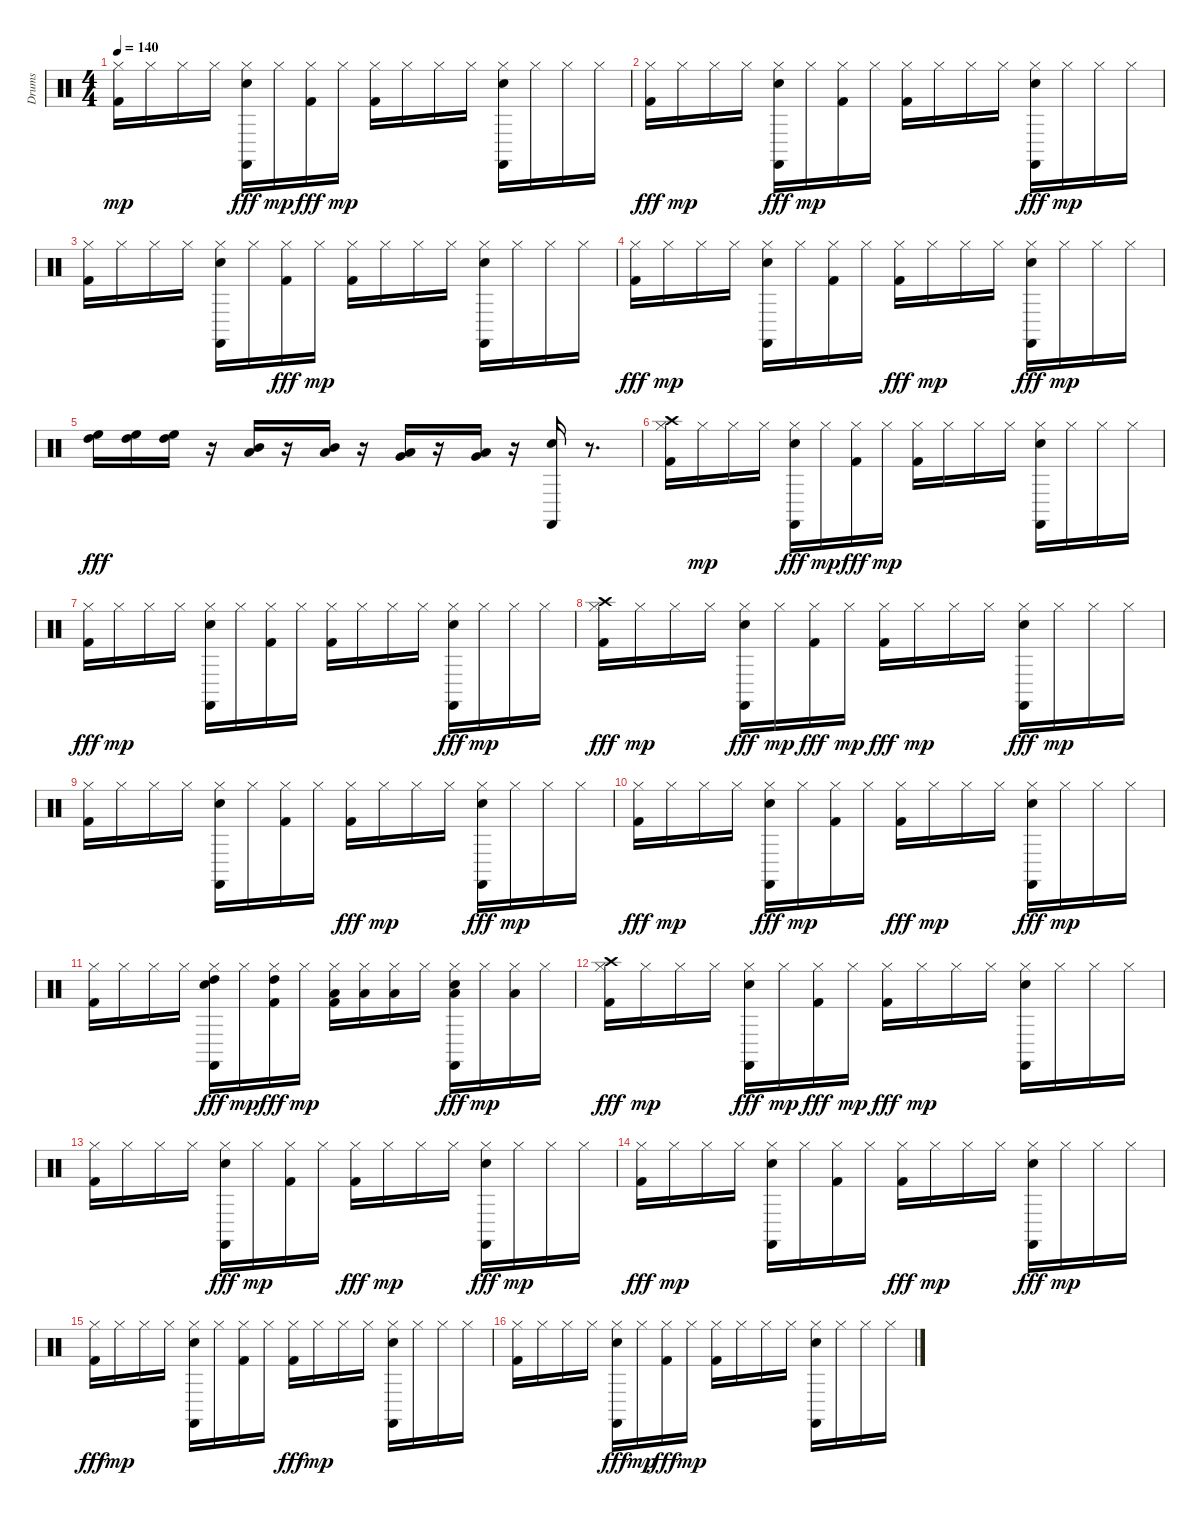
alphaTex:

\track ("Drums" "Drums") {instrument percussion}
\staff {score}
\articulation defaults
\ts (4 4)
\tempo 140
\clef neutral
\ks c
("Kick (hit) 2" "Hi-Hat (closed)").16{dy mp} "Hi-Hat (closed)".16 "Hi-Hat (closed)".16 "Hi-Hat (closed)".16 ("Hi-Hat (closed)" "Castanets (hit)" "Snare (hit) 2").16{dy fff} "Hi-Hat (closed)".16{dy mp} ("Hi-Hat (closed)" "Kick (hit) 2").16{dy fff} "Hi-Hat (closed)".16{dy mp} ("Kick (hit) 2" "Hi-Hat (closed)").16 "Hi-Hat (closed)".16 "Hi-Hat (closed)".16 "Hi-Hat (closed)".16 ("Snare (hit) 2" "Castanets (hit)" "Hi-Hat (closed)").16 "Hi-Hat (closed)".16 "Hi-Hat (closed)".16 "Hi-Hat (closed)".16 |
("Hi-Hat (closed)" "Kick (hit) 2").16{dy fff} "Hi-Hat (closed)".16{dy mp} "Hi-Hat (closed)".16 "Hi-Hat (closed)".16 ("Snare (hit) 2" "Hi-Hat (closed)" "Castanets (hit)").16{dy fff} "Hi-Hat (closed)".16{dy mp} ("Kick (hit) 2" "Hi-Hat (closed)").16 "Hi-Hat (closed)".16 ("Kick (hit) 2" "Hi-Hat (closed)").16 "Hi-Hat (closed)".16 "Hi-Hat (closed)".16 "Hi-Hat (closed)".16 ("Castanets (hit)" "Hi-Hat (closed)" "Snare (hit) 2").16{dy fff} "Hi-Hat (closed)".16{dy mp} "Hi-Hat (closed)".16 "Hi-Hat (closed)".16 |
("Kick (hit) 2" "Hi-Hat (closed)").16 "Hi-Hat (closed)".16 "Hi-Hat (closed)".16 "Hi-Hat (closed)".16 ("Snare (hit) 2" "Castanets (hit)" "Hi-Hat (closed)").16 "Hi-Hat (closed)".16 ("Hi-Hat (closed)" "Kick (hit) 2").16{dy fff} "Hi-Hat (closed)".16{dy mp} ("Kick (hit) 2" "Hi-Hat (closed)").16 "Hi-Hat (closed)".16 "Hi-Hat (closed)".16 "Hi-Hat (closed)".16 ("Castanets (hit)" "Snare (hit) 2" "Hi-Hat (closed)").16 "Hi-Hat (closed)".16 "Hi-Hat (closed)".16 "Hi-Hat (closed)".16 |
("Hi-Hat (closed)" "Kick (hit) 2").16{dy fff} "Hi-Hat (closed)".16{dy mp} "Hi-Hat (closed)".16 "Hi-Hat (closed)".16 ("Castanets (hit)" "Snare (hit) 2" "Hi-Hat (closed)").16 "Hi-Hat (closed)".16 ("Kick (hit) 2" "Hi-Hat (closed)").16 "Hi-Hat (closed)".16 ("Hi-Hat (closed)" "Kick (hit) 2").16{dy fff} "Hi-Hat (closed)".16{dy mp} "Hi-Hat (closed)".16 "Hi-Hat (closed)".16 ("Hi-Hat (closed)" "Castanets (hit)" "Snare (hit) 2").16{dy fff} "Hi-Hat (closed)".16{dy mp} "Hi-Hat (closed)".16 "Hi-Hat (closed)".16 |
("High Tom (hit)" "High Floor Tom (hit)").16{dy fff} ("High Floor Tom (hit)" "High Tom (hit)").16 ("High Floor Tom (hit)" "High Tom (hit)").16 r.16 ("Low Tom (hit)" "Mid Tom (hit)").16 r.16 ("Mid Tom (hit)" "Low Tom (hit)").16 r.16 ("Very Low Tom (hit)" "Low Floor Tom (hit)").16 r.16 ("Very Low Tom (hit)" "Low Floor Tom (hit)").16 r.16 ("Castanets (hit)" "Snare (hit) 2").16 r.8{d} |
("Kick (hit) 2" "Hi-Hat (closed)" "Crash high (hit)").16 "Hi-Hat (closed)".16{dy mp} "Hi-Hat (closed)".16 "Hi-Hat (closed)".16 ("Hi-Hat (closed)" "Castanets (hit)" "Snare (hit) 2").16{dy fff} "Hi-Hat (closed)".16{dy mp} ("Hi-Hat (closed)" "Kick (hit) 2").16{dy fff} "Hi-Hat (closed)".16{dy mp} ("Kick (hit) 2" "Hi-Hat (closed)").16 "Hi-Hat (closed)".16 "Hi-Hat (closed)".16 "Hi-Hat (closed)".16 ("Snare (hit) 2" "Castanets (hit)" "Hi-Hat (closed)").16 "Hi-Hat (closed)".16 "Hi-Hat (closed)".16 "Hi-Hat (closed)".16 |
("Hi-Hat (closed)" "Kick (hit) 2").16{dy fff} "Hi-Hat (closed)".16{dy mp} "Hi-Hat (closed)".16 "Hi-Hat (closed)".16 ("Castanets (hit)" "Snare (hit) 2" "Hi-Hat (closed)").16 "Hi-Hat (closed)".16 ("Kick (hit) 2" "Hi-Hat (closed)").16 "Hi-Hat (closed)".16 ("Kick (hit) 2" "Hi-Hat (closed)").16 "Hi-Hat (closed)".16 "Hi-Hat (closed)".16 "Hi-Hat (closed)".16 ("Hi-Hat (closed)" "Castanets (hit)" "Snare (hit) 2").16{dy fff} "Hi-Hat (closed)".16{dy mp} "Hi-Hat (closed)".16 "Hi-Hat (closed)".16 |
("Crash high (hit)" "Hi-Hat (closed)" "Kick (hit) 2").16{dy fff} "Hi-Hat (closed)".16{dy mp} "Hi-Hat (closed)".16 "Hi-Hat (closed)".16 ("Snare (hit) 2" "Hi-Hat (closed)" "Castanets (hit)").16{dy fff} "Hi-Hat (closed)".16{dy mp} ("Hi-Hat (closed)" "Kick (hit) 2").16{dy fff} "Hi-Hat (closed)".16{dy mp} ("Hi-Hat (closed)" "Kick (hit) 2").16{dy fff} "Hi-Hat (closed)".16{dy mp} "Hi-Hat (closed)".16 "Hi-Hat (closed)".16 ("Hi-Hat (closed)" "Castanets (hit)" "Snare (hit) 2").16{dy fff} "Hi-Hat (closed)".16{dy mp} "Hi-Hat (closed)".16 "Hi-Hat (closed)".16 |
("Kick (hit) 2" "Hi-Hat (closed)").16 "Hi-Hat (closed)".16 "Hi-Hat (closed)".16 "Hi-Hat (closed)".16 ("Castanets (hit)" "Snare (hit) 2" "Hi-Hat (closed)").16 "Hi-Hat (closed)".16 ("Kick (hit) 2" "Hi-Hat (closed)").16 "Hi-Hat (closed)".16 ("Hi-Hat (closed)" "Kick (hit) 2").16{dy fff} "Hi-Hat (closed)".16{dy mp} "Hi-Hat (closed)".16 "Hi-Hat (closed)".16 ("Castanets (hit)" "Hi-Hat (closed)" "Snare (hit) 2").16{dy fff} "Hi-Hat (closed)".16{dy mp} "Hi-Hat (closed)".16 "Hi-Hat (closed)".16 |
("Hi-Hat (closed)" "Kick (hit) 2").16{dy fff} "Hi-Hat (closed)".16{dy mp} "Hi-Hat (closed)".16 "Hi-Hat (closed)".16 ("Snare (hit) 2" "Hi-Hat (closed)" "Castanets (hit)").16{dy fff} "Hi-Hat (closed)".16{dy mp} ("Kick (hit) 2" "Hi-Hat (closed)").16 "Hi-Hat (closed)".16 ("Hi-Hat (closed)" "Kick (hit) 2").16{dy fff} "Hi-Hat (closed)".16{dy mp} "Hi-Hat (closed)".16 "Hi-Hat (closed)".16 ("Snare (hit) 2" "Hi-Hat (closed)" "Castanets (hit)").16{dy fff} "Hi-Hat (closed)".16{dy mp} "Hi-Hat (closed)".16 "Hi-Hat (closed)".16 |
("Kick (hit) 2" "Hi-Hat (closed)").16 "Hi-Hat (closed)".16 "Hi-Hat (closed)".16 "Hi-Hat (closed)".16 ("High Tom (hit)" "Hi-Hat (closed)" "Castanets (hit)" "Snare (hit) 2").16{dy fff} "Hi-Hat (closed)".16{dy mp} ("Kick (hit) 2" "Hi-Hat (closed)" "High Tom (hit)").16{dy fff} "Hi-Hat (closed)".16{dy mp} ("Low Tom (hit)" "Kick (hit) 2" "Hi-Hat (closed)").16 ("Low Tom (hit)" "Hi-Hat (closed)").16 ("Low Tom (hit)" "Hi-Hat (closed)").16 "Hi-Hat (closed)".16 ("Castanets (hit)" "Low Floor Tom (hit)" "Hi-Hat (closed)" "Snare (hit) 2").16{dy fff} "Hi-Hat (closed)".16{dy mp} ("Low Floor Tom (hit)" "Hi-Hat (closed)").16 "Hi-Hat (closed)".16 |
("Hi-Hat (closed)" "Kick (hit) 2" "Crash high (hit)").16{dy fff} "Hi-Hat (closed)".16{dy mp} "Hi-Hat (closed)".16 "Hi-Hat (closed)".16 ("Castanets (hit)" "Hi-Hat (closed)" "Snare (hit) 2").16{dy fff} "Hi-Hat (closed)".16{dy mp} ("Hi-Hat (closed)" "Kick (hit) 2").16{dy fff} "Hi-Hat (closed)".16{dy mp} ("Hi-Hat (closed)" "Kick (hit) 2").16{dy fff} "Hi-Hat (closed)".16{dy mp} "Hi-Hat (closed)".16 "Hi-Hat (closed)".16 ("Castanets (hit)" "Snare (hit) 2" "Hi-Hat (closed)").16 "Hi-Hat (closed)".16 "Hi-Hat (closed)".16 "Hi-Hat (closed)".16 |
("Kick (hit) 2" "Hi-Hat (closed)").16 "Hi-Hat (closed)".16 "Hi-Hat (closed)".16 "Hi-Hat (closed)".16 ("Snare (hit) 2" "Hi-Hat (closed)" "Castanets (hit)").16{dy fff} "Hi-Hat (closed)".16{dy mp} ("Kick (hit) 2" "Hi-Hat (closed)").16 "Hi-Hat (closed)".16 ("Hi-Hat (closed)" "Kick (hit) 2").16{dy fff} "Hi-Hat (closed)".16{dy mp} "Hi-Hat (closed)".16 "Hi-Hat (closed)".16 ("Snare (hit) 2" "Hi-Hat (closed)" "Castanets (hit)").16{dy fff} "Hi-Hat (closed)".16{dy mp} "Hi-Hat (closed)".16 "Hi-Hat (closed)".16 |
("Hi-Hat (closed)" "Kick (hit) 2").16{dy fff} "Hi-Hat (closed)".16{dy mp} "Hi-Hat (closed)".16 "Hi-Hat (closed)".16 ("Castanets (hit)" "Snare (hit) 2" "Hi-Hat (closed)").16 "Hi-Hat (closed)".16 ("Kick (hit) 2" "Hi-Hat (closed)").16 "Hi-Hat (closed)".16 ("Hi-Hat (closed)" "Kick (hit) 2").16{dy fff} "Hi-Hat (closed)".16{dy mp} "Hi-Hat (closed)".16 "Hi-Hat (closed)".16 ("Hi-Hat (closed)" "Castanets (hit)" "Snare (hit) 2").16{dy fff} "Hi-Hat (closed)".16{dy mp} "Hi-Hat (closed)".16 "Hi-Hat (closed)".16 |
("Hi-Hat (closed)" "Kick (hit) 2").16{dy fff} "Hi-Hat (closed)".16{dy mp} "Hi-Hat (closed)".16 "Hi-Hat (closed)".16 ("Snare (hit) 2" "Castanets (hit)" "Hi-Hat (closed)").16 "Hi-Hat (closed)".16 ("Kick (hit) 2" "Hi-Hat (closed)").16 "Hi-Hat (closed)".16 ("Hi-Hat (closed)" "Kick (hit) 2").16{dy fff} "Hi-Hat (closed)".16{dy mp} "Hi-Hat (closed)".16 "Hi-Hat (closed)".16 ("Castanets (hit)" "Snare (hit) 2" "Hi-Hat (closed)").16 "Hi-Hat (closed)".16 "Hi-Hat (closed)".16 "Hi-Hat (closed)".16 |
("Kick (hit) 2" "Hi-Hat (closed)").16 "Hi-Hat (closed)".16 "Hi-Hat (closed)".16 "Hi-Hat (closed)".16 ("Castanets (hit)" "Hi-Hat (closed)" "Snare (hit) 2").16{dy fff} "Hi-Hat (closed)".16{dy mp} ("Hi-Hat (closed)" "Kick (hit) 2").16{dy fff} "Hi-Hat (closed)".16{dy mp} ("Kick (hit) 2" "Hi-Hat (closed)").16 "Hi-Hat (closed)".16 "Hi-Hat (closed)".16 "Hi-Hat (closed)".16 ("Castanets (hit)" "Snare (hit) 2" "Hi-Hat (closed)").16 "Hi-Hat (closed)".16 "Hi-Hat (closed)".16 "Hi-Hat (closed)".16
